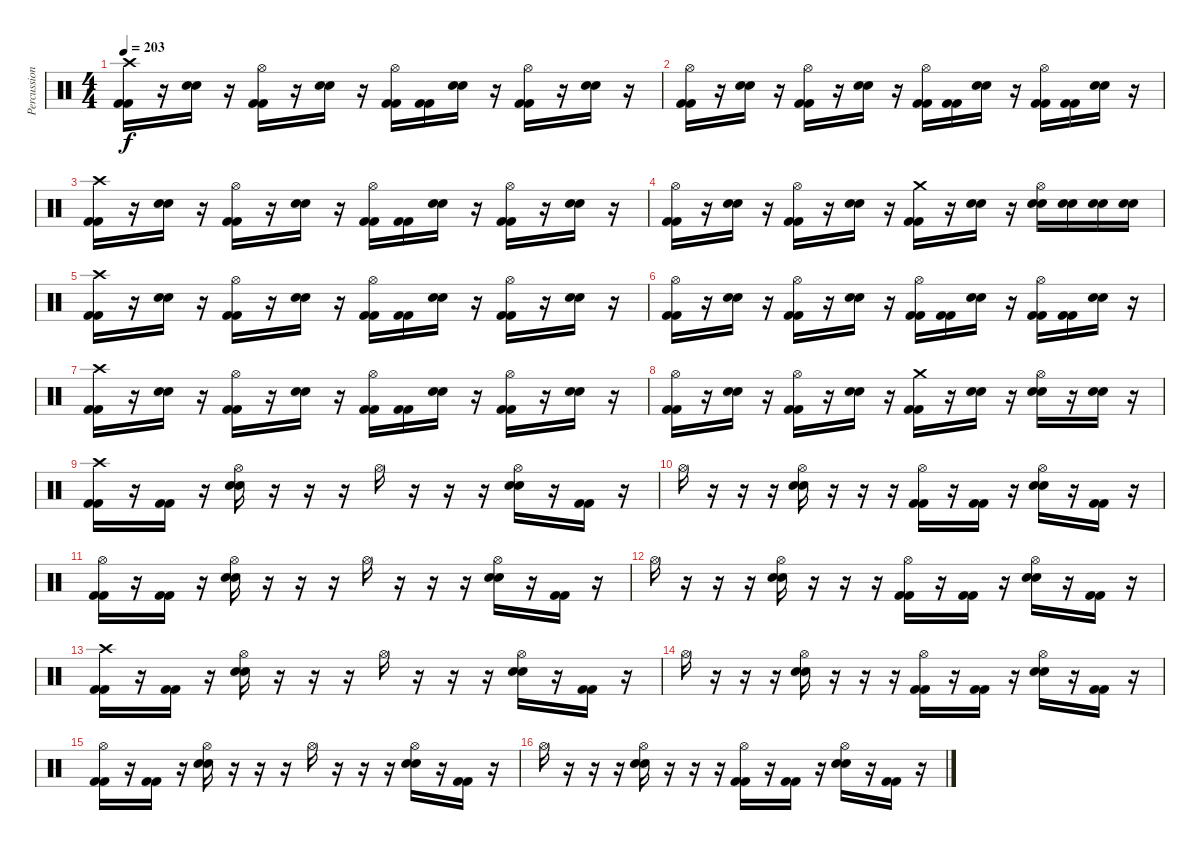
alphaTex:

\track ("Percussion" "Percussion") {instrument percussion}
\staff {score}
\articulation defaults
\ts (4 4)
\tempo 203
\clef neutral
\ks c
("Crash high (hit)" "Kick (hit) 2" "Kick (hit) 2").16{dy f} r.16 ("Snare (hit) 2" "Snare (hit) 2").16 r.16 ("Hi-Hat (open)" "Kick (hit) 2" "Kick (hit) 2").16 r.16 ("Snare (hit) 2" "Snare (hit) 2").16 r.16 ("Hi-Hat (open)" "Kick (hit) 2" "Kick (hit) 2").16 ("Kick (hit) 2" "Kick (hit) 2").16 ("Snare (hit) 2" "Snare (hit) 2").16 r.16 ("Hi-Hat (open)" "Kick (hit) 2" "Kick (hit) 2").16 r.16 ("Snare (hit) 2" "Snare (hit) 2").16 r.16 |
("Hi-Hat (open)" "Kick (hit) 2" "Kick (hit) 2").16 r.16 ("Snare (hit) 2" "Snare (hit) 2").16 r.16 ("Hi-Hat (open)" "Kick (hit) 2" "Kick (hit) 2").16 r.16 ("Snare (hit) 2" "Snare (hit) 2").16 r.16 ("Hi-Hat (open)" "Kick (hit) 2" "Kick (hit) 2").16 ("Kick (hit) 2" "Kick (hit) 2").16 ("Snare (hit) 2" "Snare (hit) 2").16 r.16 ("Hi-Hat (open)" "Kick (hit) 2" "Kick (hit) 2").16 ("Kick (hit) 2" "Kick (hit) 2").16 ("Snare (hit) 2" "Snare (hit) 2").16 r.16 |
("Crash high (hit)" "Kick (hit) 2" "Kick (hit) 2").16 r.16 ("Snare (hit) 2" "Snare (hit) 2").16 r.16 ("Hi-Hat (open)" "Kick (hit) 2" "Kick (hit) 2").16 r.16 ("Snare (hit) 2" "Snare (hit) 2").16 r.16 ("Hi-Hat (open)" "Kick (hit) 2" "Kick (hit) 2").16 ("Kick (hit) 2" "Kick (hit) 2").16 ("Snare (hit) 2" "Snare (hit) 2").16 r.16 ("Hi-Hat (open)" "Kick (hit) 2" "Kick (hit) 2").16 r.16 ("Snare (hit) 2" "Snare (hit) 2").16 r.16 |
("Hi-Hat (open)" "Kick (hit) 2" "Kick (hit) 2").16 r.16 ("Snare (hit) 2" "Snare (hit) 2").16 r.16 ("Hi-Hat (open)" "Kick (hit) 2" "Kick (hit) 2").16 r.16 ("Snare (hit) 2" "Snare (hit) 2").16 r.16 ("Crash medium (hit)" "Kick (hit) 2" "Kick (hit) 2").16 r.16 ("Snare (hit) 2" "Snare (hit) 2").16 r.16 ("Hi-Hat (open)" "Snare (hit) 2" "Snare (hit) 2").16 ("Snare (hit) 2" "Snare (hit) 2").16 ("Snare (hit) 2" "Snare (hit) 2").16 ("Snare (hit) 2" "Snare (hit) 2").16 |
("Crash high (hit)" "Kick (hit) 2" "Kick (hit) 2").16 r.16 ("Snare (hit) 2" "Snare (hit) 2").16 r.16 ("Hi-Hat (open)" "Kick (hit) 2" "Kick (hit) 2").16 r.16 ("Snare (hit) 2" "Snare (hit) 2").16 r.16 ("Hi-Hat (open)" "Kick (hit) 2" "Kick (hit) 2").16 ("Kick (hit) 2" "Kick (hit) 2").16 ("Snare (hit) 2" "Snare (hit) 2").16 r.16 ("Hi-Hat (open)" "Kick (hit) 2" "Kick (hit) 2").16 r.16 ("Snare (hit) 2" "Snare (hit) 2").16 r.16 |
("Hi-Hat (open)" "Kick (hit) 2" "Kick (hit) 2").16 r.16 ("Snare (hit) 2" "Snare (hit) 2").16 r.16 ("Hi-Hat (open)" "Kick (hit) 2" "Kick (hit) 2").16 r.16 ("Snare (hit) 2" "Snare (hit) 2").16 r.16 ("Hi-Hat (open)" "Kick (hit) 2" "Kick (hit) 2").16 ("Kick (hit) 2" "Kick (hit) 2").16 ("Snare (hit) 2" "Snare (hit) 2").16 r.16 ("Hi-Hat (open)" "Kick (hit) 2" "Kick (hit) 2").16 ("Kick (hit) 2" "Kick (hit) 2").16 ("Snare (hit) 2" "Snare (hit) 2").16 r.16 |
("Crash high (hit)" "Kick (hit) 2" "Kick (hit) 2").16 r.16 ("Snare (hit) 2" "Snare (hit) 2").16 r.16 ("Hi-Hat (open)" "Kick (hit) 2" "Kick (hit) 2").16 r.16 ("Snare (hit) 2" "Snare (hit) 2").16 r.16 ("Hi-Hat (open)" "Kick (hit) 2" "Kick (hit) 2").16 ("Kick (hit) 2" "Kick (hit) 2").16 ("Snare (hit) 2" "Snare (hit) 2").16 r.16 ("Hi-Hat (open)" "Kick (hit) 2" "Kick (hit) 2").16 r.16 ("Snare (hit) 2" "Snare (hit) 2").16 r.16 |
("Hi-Hat (open)" "Kick (hit) 2" "Kick (hit) 2").16 r.16 ("Snare (hit) 2" "Snare (hit) 2").16 r.16 ("Hi-Hat (open)" "Kick (hit) 2" "Kick (hit) 2").16 r.16 ("Snare (hit) 2" "Snare (hit) 2").16 r.16 ("Crash medium (hit)" "Kick (hit) 2" "Kick (hit) 2").16 r.16 ("Snare (hit) 2" "Snare (hit) 2").16 r.16 ("Hi-Hat (open)" "Snare (hit) 2" "Snare (hit) 2").16 r.16 ("Snare (hit) 2" "Snare (hit) 2").16 r.16 |
("Crash high (hit)" "Kick (hit) 2" "Kick (hit) 2").16 r.16 ("Kick (hit) 2" "Kick (hit) 2").16 r.16 ("Hi-Hat (open)" "Snare (hit) 2" "Snare (hit) 2").16 r.16 r.16 r.16 "Hi-Hat (open)".16 r.16 r.16 r.16 ("Hi-Hat (open)" "Snare (hit) 2" "Snare (hit) 2").16 r.16 ("Kick (hit) 2" "Kick (hit) 2").16 r.16 |
"Hi-Hat (open)".16 r.16 r.16 r.16 ("Hi-Hat (open)" "Snare (hit) 2" "Snare (hit) 2").16 r.16 r.16 r.16 ("Hi-Hat (open)" "Kick (hit) 2" "Kick (hit) 2").16 r.16 ("Kick (hit) 2" "Kick (hit) 2").16 r.16 ("Hi-Hat (open)" "Snare (hit) 2" "Snare (hit) 2").16 r.16 ("Kick (hit) 2" "Kick (hit) 2").16 r.16 |
("Hi-Hat (open)" "Kick (hit) 2" "Kick (hit) 2").16 r.16 ("Kick (hit) 2" "Kick (hit) 2").16 r.16 ("Hi-Hat (open)" "Snare (hit) 2" "Snare (hit) 2").16 r.16 r.16 r.16 "Hi-Hat (open)".16 r.16 r.16 r.16 ("Hi-Hat (open)" "Snare (hit) 2" "Snare (hit) 2").16 r.16 ("Kick (hit) 2" "Kick (hit) 2").16 r.16 |
"Hi-Hat (open)".16 r.16 r.16 r.16 ("Hi-Hat (open)" "Snare (hit) 2" "Snare (hit) 2").16 r.16 r.16 r.16 ("Hi-Hat (open)" "Kick (hit) 2" "Kick (hit) 2").16 r.16 ("Kick (hit) 2" "Kick (hit) 2").16 r.16 ("Hi-Hat (open)" "Snare (hit) 2" "Snare (hit) 2").16 r.16 ("Kick (hit) 2" "Kick (hit) 2").16 r.16 |
("Crash high (hit)" "Kick (hit) 2" "Kick (hit) 2").16 r.16 ("Kick (hit) 2" "Kick (hit) 2").16 r.16 ("Hi-Hat (open)" "Snare (hit) 2" "Snare (hit) 2").16 r.16 r.16 r.16 "Hi-Hat (open)".16 r.16 r.16 r.16 ("Hi-Hat (open)" "Snare (hit) 2" "Snare (hit) 2").16 r.16 ("Kick (hit) 2" "Kick (hit) 2").16 r.16 |
"Hi-Hat (open)".16 r.16 r.16 r.16 ("Hi-Hat (open)" "Snare (hit) 2" "Snare (hit) 2").16 r.16 r.16 r.16 ("Hi-Hat (open)" "Kick (hit) 2" "Kick (hit) 2").16 r.16 ("Kick (hit) 2" "Kick (hit) 2").16 r.16 ("Hi-Hat (open)" "Snare (hit) 2" "Snare (hit) 2").16 r.16 ("Kick (hit) 2" "Kick (hit) 2").16 r.16 |
("Hi-Hat (open)" "Kick (hit) 2" "Kick (hit) 2").16 r.16 ("Kick (hit) 2" "Kick (hit) 2").16 r.16 ("Hi-Hat (open)" "Snare (hit) 2" "Snare (hit) 2").16 r.16 r.16 r.16 "Hi-Hat (open)".16 r.16 r.16 r.16 ("Hi-Hat (open)" "Snare (hit) 2" "Snare (hit) 2").16 r.16 ("Kick (hit) 2" "Kick (hit) 2").16 r.16 |
"Hi-Hat (open)".16 r.16 r.16 r.16 ("Hi-Hat (open)" "Snare (hit) 2" "Snare (hit) 2").16 r.16 r.16 r.16 ("Hi-Hat (open)" "Kick (hit) 2" "Kick (hit) 2").16 r.16 ("Kick (hit) 2" "Kick (hit) 2").16 r.16 ("Hi-Hat (open)" "Snare (hit) 2" "Snare (hit) 2").16 r.16 ("Kick (hit) 2" "Kick (hit) 2").16 r.16
